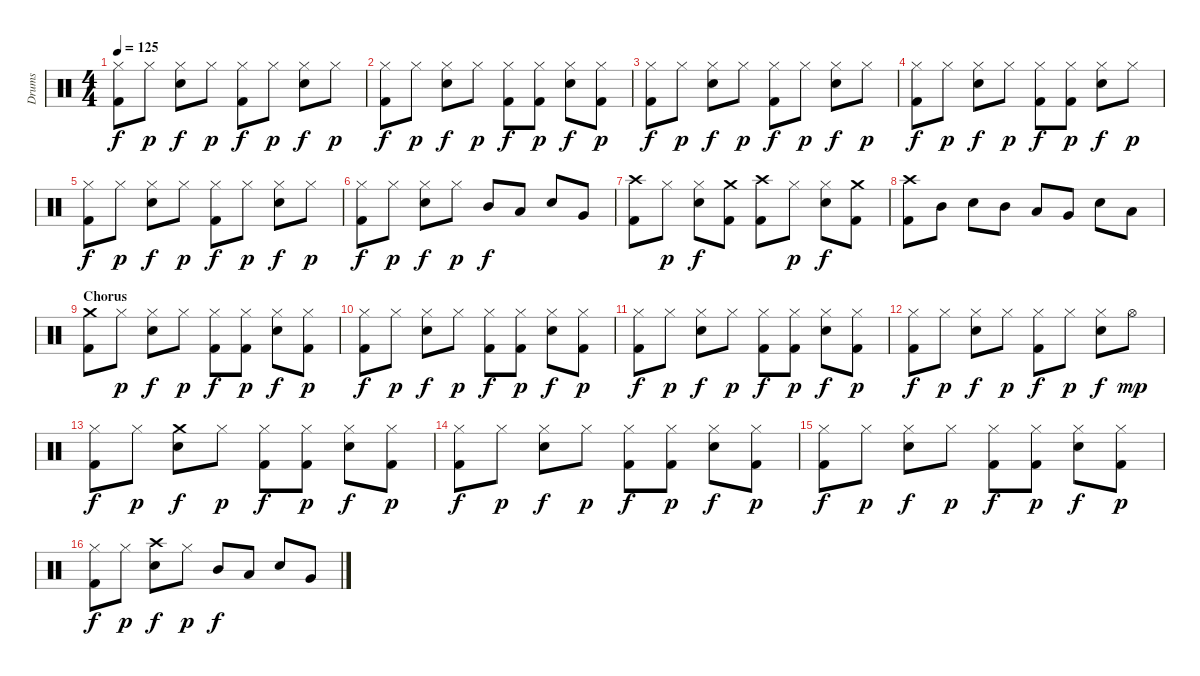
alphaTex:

\track ("Drums" "Drums") {instrument percussion}
\staff {score}
\articulation defaults
\ts (4 4)
\tempo 125
\clef neutral
\ks c
("Hi-Hat (closed)" "Kick (hit) 2").8{dy f} "Hi-Hat (closed)".8{dy p} ("Hi-Hat (closed)" "Snare (hit) 2").8{dy f} "Hi-Hat (closed)".8{dy p} ("Hi-Hat (closed)" "Kick (hit) 2").8{dy f} "Hi-Hat (closed)".8{dy p} ("Hi-Hat (closed)" "Snare (hit) 2").8{dy f} "Hi-Hat (closed)".8{dy p} |
("Hi-Hat (closed)" "Kick (hit) 2").8{dy f} "Hi-Hat (closed)".8{dy p} ("Hi-Hat (closed)" "Snare (hit) 2").8{dy f} "Hi-Hat (closed)".8{dy p} ("Hi-Hat (closed)" "Kick (hit) 2").8{dy f} ("Hi-Hat (closed)" "Kick (hit) 2").8{dy p} ("Hi-Hat (closed)" "Snare (hit) 2").8{dy f} ("Hi-Hat (closed)" "Kick (hit) 2").8{dy p} |
("Hi-Hat (closed)" "Kick (hit) 2").8{dy f} "Hi-Hat (closed)".8{dy p} ("Hi-Hat (closed)" "Snare (hit) 2").8{dy f} "Hi-Hat (closed)".8{dy p} ("Hi-Hat (closed)" "Kick (hit) 2").8{dy f} "Hi-Hat (closed)".8{dy p} ("Hi-Hat (closed)" "Snare (hit) 2").8{dy f} "Hi-Hat (closed)".8{dy p} |
("Hi-Hat (closed)" "Kick (hit) 2").8{dy f} "Hi-Hat (closed)".8{dy p} ("Hi-Hat (closed)" "Snare (hit) 2").8{dy f} "Hi-Hat (closed)".8{dy p} ("Hi-Hat (closed)" "Kick (hit) 2").8{dy f} ("Hi-Hat (closed)" "Kick (hit) 2").8{dy p} ("Hi-Hat (closed)" "Snare (hit) 2").8{dy f} "Hi-Hat (closed)".8{dy p} |
("Hi-Hat (closed)" "Kick (hit) 2").8{dy f} "Hi-Hat (closed)".8{dy p} ("Hi-Hat (closed)" "Snare (hit) 2").8{dy f} "Hi-Hat (closed)".8{dy p} ("Hi-Hat (closed)" "Kick (hit) 2").8{dy f} "Hi-Hat (closed)".8{dy p} ("Hi-Hat (closed)" "Snare (hit) 2").8{dy f} "Hi-Hat (closed)".8{dy p} |
("Hi-Hat (closed)" "Kick (hit) 2").8{dy f} "Hi-Hat (closed)".8{dy p} ("Hi-Hat (closed)" "Snare (hit) 2").8{dy f} "Hi-Hat (closed)".8{dy p} "Mid Tom (hit)".8{dy f} "Low Tom (hit)".8 "Snare (hit) 2".8 "Very Low Tom (hit)".8 |
("Crash high (hit)" "Kick (hit) 2").8 "Hi-Hat (closed)".8{dy p} ("Hi-Hat (closed)" "Snare (hit) 2").8{dy f} ("Crash medium (hit)" "Kick (hit) 2").8 ("Crash high (hit)" "Kick (hit) 2").8 "Hi-Hat (closed)".8{dy p} ("Hi-Hat (closed)" "Snare (hit) 2").8{dy f} ("Crash medium (hit)" "Kick (hit) 2").8 |
("Crash high (hit)" "Kick (hit) 2").8 "Mid Tom (hit)".8 "Snare (hit) 2".8 "Mid Tom (hit)".8 "Low Tom (hit)".8 "Very Low Tom (hit)".8 "Snare (hit) 2".8 "Low Floor Tom (hit)".8 |
\section ("" "Chorus")
("Crash medium (hit)" "Kick (hit) 2").8 "Hi-Hat (closed)".8{dy p} ("Hi-Hat (closed)" "Snare (hit) 2").8{dy f} "Hi-Hat (closed)".8{dy p} ("Hi-Hat (closed)" "Kick (hit) 2").8{dy f} ("Hi-Hat (closed)" "Kick (hit) 2").8{dy p} ("Hi-Hat (closed)" "Snare (hit) 2").8{dy f} ("Hi-Hat (closed)" "Kick (hit) 2").8{dy p} |
("Hi-Hat (closed)" "Kick (hit) 2").8{dy f} "Hi-Hat (closed)".8{dy p} ("Hi-Hat (closed)" "Snare (hit) 2").8{dy f} "Hi-Hat (closed)".8{dy p} ("Hi-Hat (closed)" "Kick (hit) 2").8{dy f} ("Hi-Hat (closed)" "Kick (hit) 2").8{dy p} ("Hi-Hat (closed)" "Snare (hit) 2").8{dy f} ("Hi-Hat (closed)" "Kick (hit) 2").8{dy p} |
("Hi-Hat (closed)" "Kick (hit) 2").8{dy f} "Hi-Hat (closed)".8{dy p} ("Hi-Hat (closed)" "Snare (hit) 2").8{dy f} "Hi-Hat (closed)".8{dy p} ("Hi-Hat (closed)" "Kick (hit) 2").8{dy f} ("Hi-Hat (closed)" "Kick (hit) 2").8{dy p} ("Hi-Hat (closed)" "Snare (hit) 2").8{dy f} ("Hi-Hat (closed)" "Kick (hit) 2").8{dy p} |
("Hi-Hat (closed)" "Kick (hit) 2").8{dy f} "Hi-Hat (closed)".8{dy p} ("Hi-Hat (closed)" "Snare (hit) 2").8{dy f} "Hi-Hat (closed)".8{dy p} ("Hi-Hat (closed)" "Kick (hit) 2").8{dy f} "Hi-Hat (closed)".8{dy p} ("Hi-Hat (closed)" "Snare (hit) 2").8{dy f} "Hi-Hat (open)".8{dy mp} |
("Hi-Hat (closed)" "Kick (hit) 2").8{dy f} "Hi-Hat (closed)".8{dy p} ("Crash medium (hit)" "Snare (hit) 2").8{dy f} "Hi-Hat (closed)".8{dy p} ("Hi-Hat (closed)" "Kick (hit) 2").8{dy f} ("Hi-Hat (closed)" "Kick (hit) 2").8{dy p} ("Hi-Hat (closed)" "Snare (hit) 2").8{dy f} ("Hi-Hat (closed)" "Kick (hit) 2").8{dy p} |
("Hi-Hat (closed)" "Kick (hit) 2").8{dy f} "Hi-Hat (closed)".8{dy p} ("Hi-Hat (closed)" "Snare (hit) 2").8{dy f} "Hi-Hat (closed)".8{dy p} ("Hi-Hat (closed)" "Kick (hit) 2").8{dy f} ("Hi-Hat (closed)" "Kick (hit) 2").8{dy p} ("Hi-Hat (closed)" "Snare (hit) 2").8{dy f} ("Hi-Hat (closed)" "Kick (hit) 2").8{dy p} |
("Hi-Hat (closed)" "Kick (hit) 2").8{dy f} "Hi-Hat (closed)".8{dy p} ("Hi-Hat (closed)" "Snare (hit) 2").8{dy f} "Hi-Hat (closed)".8{dy p} ("Hi-Hat (closed)" "Kick (hit) 2").8{dy f} ("Hi-Hat (closed)" "Kick (hit) 2").8{dy p} ("Hi-Hat (closed)" "Snare (hit) 2").8{dy f} ("Hi-Hat (closed)" "Kick (hit) 2").8{dy p} |
("Hi-Hat (closed)" "Kick (hit) 2").8{dy f} "Hi-Hat (closed)".8{dy p} ("Crash high (hit)" "Snare (hit) 2").8{dy f} "Hi-Hat (closed)".8{dy p} "Mid Tom (hit)".8{dy f} "Low Tom (hit)".8 "Snare (hit) 2".8 "Very Low Tom (hit)".8
